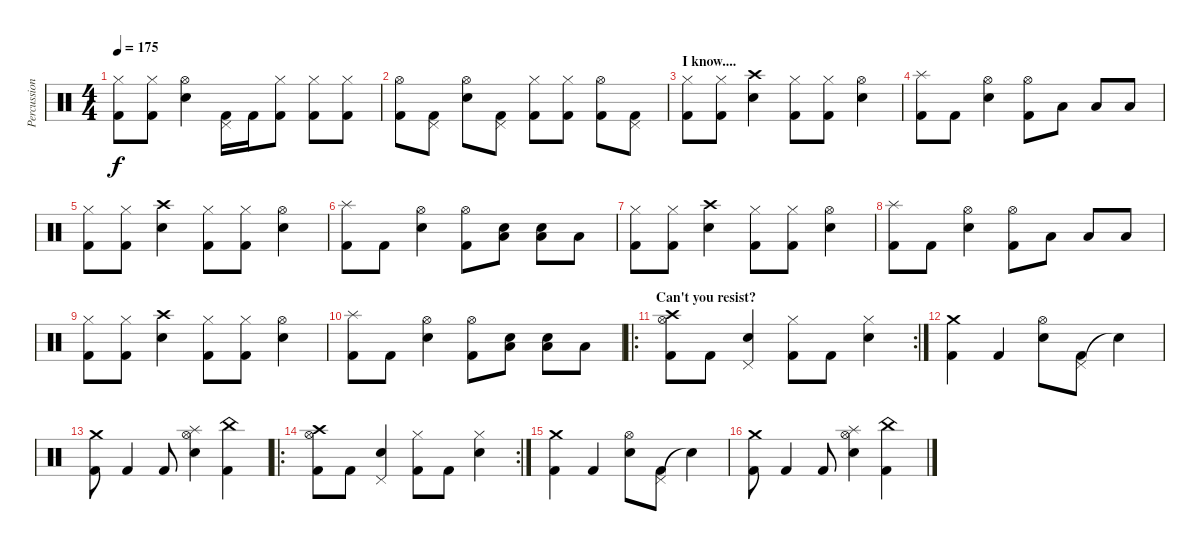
\track ("Percussion" "Percussion") {instrument percussion}
\staff {score}
\articulation defaults
\ts (4 4)
\tempo 175
\clef neutral
\ks c
("Hi-Hat (closed)" "Kick (hit) 2").8{dy f} ("Hi-Hat (closed)" "Kick (hit) 2").8 ("Hi-Hat (open)" "Snare (hit) 2").4 ("Pedal Hi-Hat (hit)" "Kick (hit) 2").16 "Kick (hit) 2".16 ("Hi-Hat (closed)" "Kick (hit) 2").8 ("Hi-Hat (closed)" "Kick (hit) 2").8 ("Hi-Hat (closed)" "Kick (hit) 2").8 |
("Hi-Hat (open)" "Kick (hit) 2").8 ("Pedal Hi-Hat (hit)" "Kick (hit) 2").8 ("Hi-Hat (open)" "Snare (hit) 2").8 ("Pedal Hi-Hat (hit)" "Kick (hit) 2").8 ("Hi-Hat (closed)" "Kick (hit) 2").8 ("Hi-Hat (closed)" "Kick (hit) 2").8 ("Hi-Hat (open)" "Kick (hit) 2").8 ("Pedal Hi-Hat (hit)" "Kick (hit) 2").8 |
\section ("" "I know....")
("Hi-Hat (closed)" "Kick (hit) 2").8 ("Hi-Hat (closed)" "Kick (hit) 2").8 ("Crash high (hit)" "Snare (hit) 2").4 ("Hi-Hat (closed)" "Kick (hit) 2").8 ("Hi-Hat (closed)" "Kick (hit) 2").8 ("Hi-Hat (open)" "Snare (hit) 2").4 |
("Splash (hit)" "Kick (hit) 2").8 "Kick (hit) 2".8 ("Hi-Hat (open)" "Snare (hit) 2").4 ("Hi-Hat (open)" "Kick (hit) 2").8 "Low Tom (hit)".8 "Low Tom (hit)".8 "Low Tom (hit)".8 |
("Hi-Hat (closed)" "Kick (hit) 2").8 ("Hi-Hat (closed)" "Kick (hit) 2").8 ("Crash high (hit)" "Snare (hit) 2").4 ("Hi-Hat (closed)" "Kick (hit) 2").8 ("Hi-Hat (closed)" "Kick (hit) 2").8 ("Hi-Hat (open)" "Snare (hit) 2").4 |
("Splash (hit)" "Kick (hit) 2").8 "Kick (hit) 2".8 ("Hi-Hat (open)" "Snare (hit) 2").4 ("Hi-Hat (open)" "Kick (hit) 2").8 ("Low Tom (hit)" "Snare (hit) 2").8 ("Low Tom (hit)" "Snare (hit) 2").8 "Low Tom (hit)".8 |
("Hi-Hat (closed)" "Kick (hit) 2").8 ("Hi-Hat (closed)" "Kick (hit) 2").8 ("Crash high (hit)" "Snare (hit) 2").4 ("Hi-Hat (closed)" "Kick (hit) 2").8 ("Hi-Hat (closed)" "Kick (hit) 2").8 ("Hi-Hat (open)" "Snare (hit) 2").4 |
("Splash (hit)" "Kick (hit) 2").8 "Kick (hit) 2".8 ("Hi-Hat (open)" "Snare (hit) 2").4 ("Hi-Hat (open)" "Kick (hit) 2").8 "Low Tom (hit)".8 "Low Tom (hit)".8 "Low Tom (hit)".8 |
("Hi-Hat (closed)" "Kick (hit) 2").8 ("Hi-Hat (closed)" "Kick (hit) 2").8 ("Crash high (hit)" "Snare (hit) 2").4 ("Hi-Hat (closed)" "Kick (hit) 2").8 ("Hi-Hat (closed)" "Kick (hit) 2").8 ("Hi-Hat (open)" "Snare (hit) 2").4 |
("Splash (hit)" "Kick (hit) 2").8 "Kick (hit) 2".8 ("Hi-Hat (open)" "Snare (hit) 2").4 ("Hi-Hat (open)" "Kick (hit) 2").8 ("Low Tom (hit)" "Snare (hit) 2").8 ("Low Tom (hit)" "Snare (hit) 2").8 "Low Tom (hit)".8 |
\ro
\rc 2
\section ("" "Can't you resist?")
("Crash high (hit)" "Hi-Hat (open)" "Kick (hit) 2").8 "Kick (hit) 2".8 ("Pedal Hi-Hat (hit)" "Snare (hit) 2").4 ("Hi-Hat (closed)" "Kick (hit) 2").8 "Kick (hit) 2".8 ("Hi-Hat (closed)" "Snare (hit) 2").4 |
("Crash medium (hit)" "Kick (hit) 2").4 "Kick (hit) 2".4 ("Hi-Hat (open)" "Snare (hit) 2").8 ("Pedal Hi-Hat (hit)" "Kick (hit) 2").8 "Snare (hit)"{t}.4 |
("Crash medium (hit)" "Kick (hit) 2").8 "Kick (hit) 2".4 "Kick (hit) 2".8 ("Splash (hit)" "Hi-Hat (open)" "Snare (hit) 2").4 ("China (hit)" "Kick (hit) 2").4 |
\ro
\rc 2
("Crash high (hit)" "Hi-Hat (open)" "Kick (hit) 2").8 "Kick (hit) 2".8 ("Pedal Hi-Hat (hit)" "Snare (hit) 2").4 ("Hi-Hat (closed)" "Kick (hit) 2").8 "Kick (hit) 2".8 ("Hi-Hat (closed)" "Snare (hit) 2").4 |
("Crash medium (hit)" "Kick (hit) 2").4 "Kick (hit) 2".4 ("Hi-Hat (open)" "Snare (hit) 2").8 ("Pedal Hi-Hat (hit)" "Kick (hit) 2").8 "Snare (hit)"{t}.4 |
("Crash medium (hit)" "Kick (hit) 2").8 "Kick (hit) 2".4 "Kick (hit) 2".8 ("Splash (hit)" "Hi-Hat (open)" "Snare (hit) 2").4 ("China (hit)" "Kick (hit) 2").4
